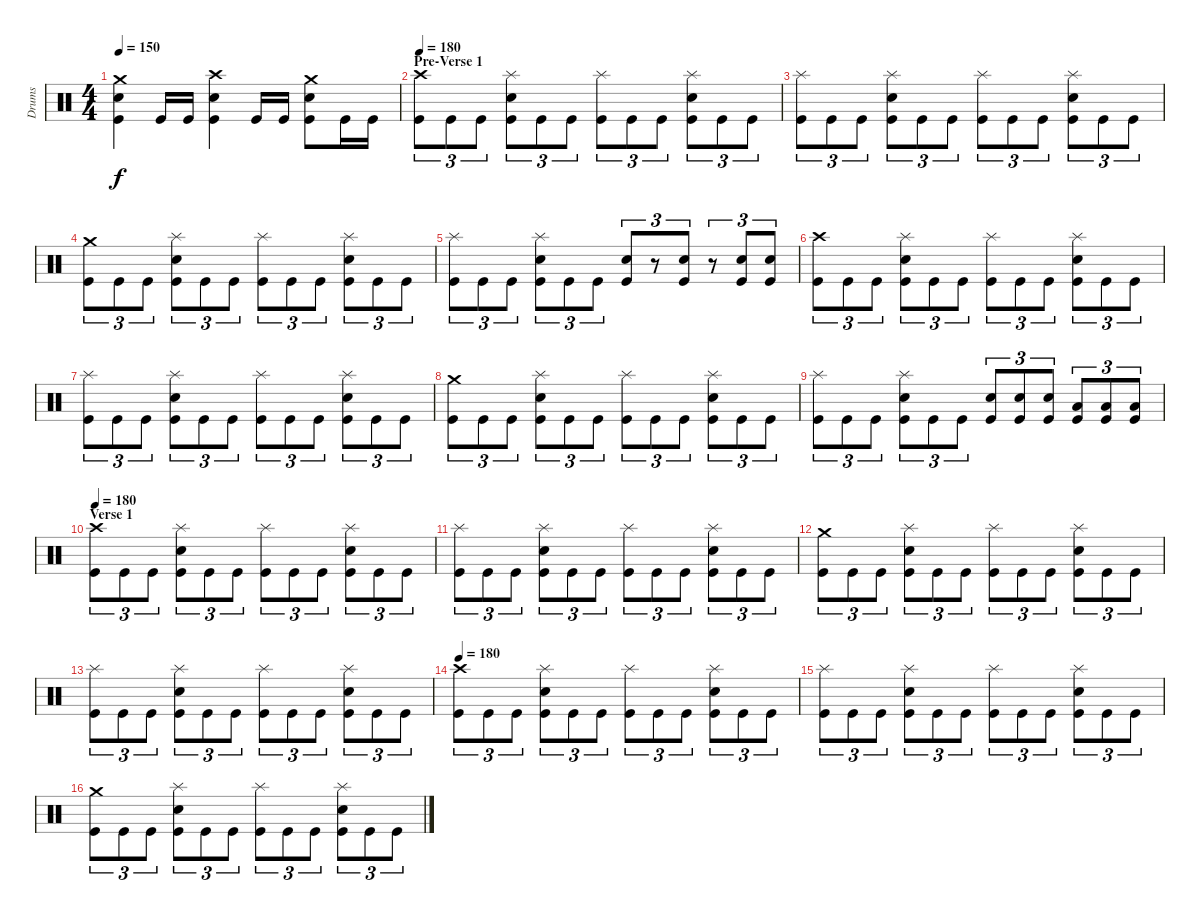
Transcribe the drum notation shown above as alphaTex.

\track ("Drums" "Drums") {instrument percussion}
\staff {score}
\articulation defaults
\ts (4 4)
\tempo 150
\clef neutral
\ks c
("Crash medium (hit)" "Electric Snare (hit)" "Kick (hit)").4{dy f} "Kick (hit)".16 "Kick (hit)".16 ("Crash high (hit)" "Electric Snare (hit)" "Kick (hit)").4 "Kick (hit)".16 "Kick (hit)".16 ("Crash medium (hit)" "Electric Snare (hit)" "Kick (hit)").8 "Kick (hit)".16 "Kick (hit)".16 |
\section ("" "Pre-Verse 1")
\tempo 180
("Crash high (hit)" "Kick (hit)").8{tu (3 2)} "Kick (hit)".8{tu (3 2)} "Kick (hit)".8{tu (3 2)} ("Splash (hit)" "Electric Snare (hit)" "Kick (hit)").8{tu (3 2)} "Kick (hit)".8{tu (3 2)} "Kick (hit)".8{tu (3 2)} ("Splash (hit)" "Kick (hit)").8{tu (3 2)} "Kick (hit)".8{tu (3 2)} "Kick (hit)".8{tu (3 2)} ("Splash (hit)" "Electric Snare (hit)" "Kick (hit)").8{tu (3 2)} "Kick (hit)".8{tu (3 2)} "Kick (hit)".8{tu (3 2)} |
("Splash (hit)" "Kick (hit)").8{tu (3 2)} "Kick (hit)".8{tu (3 2)} "Kick (hit)".8{tu (3 2)} ("Splash (hit)" "Electric Snare (hit)" "Kick (hit)").8{tu (3 2)} "Kick (hit)".8{tu (3 2)} "Kick (hit)".8{tu (3 2)} ("Splash (hit)" "Kick (hit)").8{tu (3 2)} "Kick (hit)".8{tu (3 2)} "Kick (hit)".8{tu (3 2)} ("Splash (hit)" "Electric Snare (hit)" "Kick (hit)").8{tu (3 2)} "Kick (hit)".8{tu (3 2)} "Kick (hit)".8{tu (3 2)} |
("Crash medium (hit)" "Kick (hit)").8{tu (3 2)} "Kick (hit)".8{tu (3 2)} "Kick (hit)".8{tu (3 2)} ("Splash (hit)" "Electric Snare (hit)" "Kick (hit)").8{tu (3 2)} "Kick (hit)".8{tu (3 2)} "Kick (hit)".8{tu (3 2)} ("Splash (hit)" "Kick (hit)").8{tu (3 2)} "Kick (hit)".8{tu (3 2)} "Kick (hit)".8{tu (3 2)} ("Splash (hit)" "Electric Snare (hit)" "Kick (hit)").8{tu (3 2)} "Kick (hit)".8{tu (3 2)} "Kick (hit)".8{tu (3 2)} |
("Splash (hit)" "Kick (hit)").8{tu (3 2)} "Kick (hit)".8{tu (3 2)} "Kick (hit)".8{tu (3 2)} ("Splash (hit)" "Electric Snare (hit)" "Kick (hit)").8{tu (3 2)} "Kick (hit)".8{tu (3 2)} "Kick (hit)".8{tu (3 2)} ("Electric Snare (hit)" "Kick (hit)").8{tu (3 2)} r.8{tu (3 2)} ("Electric Snare (hit)" "Kick (hit)").8{tu (3 2)} r.8{tu (3 2)} ("Electric Snare (hit)" "Kick (hit)").8{tu (3 2)} ("Electric Snare (hit)" "Kick (hit)").8{tu (3 2)} |
("Crash high (hit)" "Kick (hit)").8{tu (3 2)} "Kick (hit)".8{tu (3 2)} "Kick (hit)".8{tu (3 2)} ("Splash (hit)" "Electric Snare (hit)" "Kick (hit)").8{tu (3 2)} "Kick (hit)".8{tu (3 2)} "Kick (hit)".8{tu (3 2)} ("Splash (hit)" "Kick (hit)").8{tu (3 2)} "Kick (hit)".8{tu (3 2)} "Kick (hit)".8{tu (3 2)} ("Splash (hit)" "Electric Snare (hit)" "Kick (hit)").8{tu (3 2)} "Kick (hit)".8{tu (3 2)} "Kick (hit)".8{tu (3 2)} |
("Splash (hit)" "Kick (hit)").8{tu (3 2)} "Kick (hit)".8{tu (3 2)} "Kick (hit)".8{tu (3 2)} ("Splash (hit)" "Electric Snare (hit)" "Kick (hit)").8{tu (3 2)} "Kick (hit)".8{tu (3 2)} "Kick (hit)".8{tu (3 2)} ("Splash (hit)" "Kick (hit)").8{tu (3 2)} "Kick (hit)".8{tu (3 2)} "Kick (hit)".8{tu (3 2)} ("Splash (hit)" "Electric Snare (hit)" "Kick (hit)").8{tu (3 2)} "Kick (hit)".8{tu (3 2)} "Kick (hit)".8{tu (3 2)} |
("Crash medium (hit)" "Kick (hit)").8{tu (3 2)} "Kick (hit)".8{tu (3 2)} "Kick (hit)".8{tu (3 2)} ("Splash (hit)" "Electric Snare (hit)" "Kick (hit)").8{tu (3 2)} "Kick (hit)".8{tu (3 2)} "Kick (hit)".8{tu (3 2)} ("Splash (hit)" "Kick (hit)").8{tu (3 2)} "Kick (hit)".8{tu (3 2)} "Kick (hit)".8{tu (3 2)} ("Splash (hit)" "Electric Snare (hit)" "Kick (hit)").8{tu (3 2)} "Kick (hit)".8{tu (3 2)} "Kick (hit)".8{tu (3 2)} |
("Splash (hit)" "Kick (hit)").8{tu (3 2)} "Kick (hit)".8{tu (3 2)} "Kick (hit)".8{tu (3 2)} ("Splash (hit)" "Electric Snare (hit)" "Kick (hit)").8{tu (3 2)} "Kick (hit)".8{tu (3 2)} "Kick (hit)".8{tu (3 2)} ("Electric Snare (hit)" "Kick (hit)").8{tu (3 2)} ("Electric Snare (hit)" "Kick (hit)").8{tu (3 2)} ("Electric Snare (hit)" "Kick (hit)").8{tu (3 2)} ("Low Floor Tom (hit)" "Kick (hit)").8{tu (3 2)} ("Low Floor Tom (hit)" "Kick (hit)").8{tu (3 2)} ("Low Floor Tom (hit)" "Kick (hit)").8{tu (3 2)} |
\section ("" "Verse 1")
\tempo 180
("Crash high (hit)" "Kick (hit)").8{tu (3 2)} "Kick (hit)".8{tu (3 2)} "Kick (hit)".8{tu (3 2)} ("Splash (hit)" "Electric Snare (hit)" "Kick (hit)").8{tu (3 2)} "Kick (hit)".8{tu (3 2)} "Kick (hit)".8{tu (3 2)} ("Splash (hit)" "Kick (hit)").8{tu (3 2)} "Kick (hit)".8{tu (3 2)} "Kick (hit)".8{tu (3 2)} ("Splash (hit)" "Electric Snare (hit)" "Kick (hit)").8{tu (3 2)} "Kick (hit)".8{tu (3 2)} "Kick (hit)".8{tu (3 2)} |
("Splash (hit)" "Kick (hit)").8{tu (3 2)} "Kick (hit)".8{tu (3 2)} "Kick (hit)".8{tu (3 2)} ("Splash (hit)" "Electric Snare (hit)" "Kick (hit)").8{tu (3 2)} "Kick (hit)".8{tu (3 2)} "Kick (hit)".8{tu (3 2)} ("Splash (hit)" "Kick (hit)").8{tu (3 2)} "Kick (hit)".8{tu (3 2)} "Kick (hit)".8{tu (3 2)} ("Splash (hit)" "Electric Snare (hit)" "Kick (hit)").8{tu (3 2)} "Kick (hit)".8{tu (3 2)} "Kick (hit)".8{tu (3 2)} |
("Crash medium (hit)" "Kick (hit)").8{tu (3 2)} "Kick (hit)".8{tu (3 2)} "Kick (hit)".8{tu (3 2)} ("Splash (hit)" "Electric Snare (hit)" "Kick (hit)").8{tu (3 2)} "Kick (hit)".8{tu (3 2)} "Kick (hit)".8{tu (3 2)} ("Splash (hit)" "Kick (hit)").8{tu (3 2)} "Kick (hit)".8{tu (3 2)} "Kick (hit)".8{tu (3 2)} ("Splash (hit)" "Electric Snare (hit)" "Kick (hit)").8{tu (3 2)} "Kick (hit)".8{tu (3 2)} "Kick (hit)".8{tu (3 2)} |
("Splash (hit)" "Kick (hit)").8{tu (3 2)} "Kick (hit)".8{tu (3 2)} "Kick (hit)".8{tu (3 2)} ("Splash (hit)" "Electric Snare (hit)" "Kick (hit)").8{tu (3 2)} "Kick (hit)".8{tu (3 2)} "Kick (hit)".8{tu (3 2)} ("Splash (hit)" "Kick (hit)").8{tu (3 2)} "Kick (hit)".8{tu (3 2)} "Kick (hit)".8{tu (3 2)} ("Splash (hit)" "Electric Snare (hit)" "Kick (hit)").8{tu (3 2)} "Kick (hit)".8{tu (3 2)} "Kick (hit)".8{tu (3 2)} |
\tempo 180
("Crash high (hit)" "Kick (hit)").8{tu (3 2)} "Kick (hit)".8{tu (3 2)} "Kick (hit)".8{tu (3 2)} ("Splash (hit)" "Electric Snare (hit)" "Kick (hit)").8{tu (3 2)} "Kick (hit)".8{tu (3 2)} "Kick (hit)".8{tu (3 2)} ("Splash (hit)" "Kick (hit)").8{tu (3 2)} "Kick (hit)".8{tu (3 2)} "Kick (hit)".8{tu (3 2)} ("Splash (hit)" "Electric Snare (hit)" "Kick (hit)").8{tu (3 2)} "Kick (hit)".8{tu (3 2)} "Kick (hit)".8{tu (3 2)} |
("Splash (hit)" "Kick (hit)").8{tu (3 2)} "Kick (hit)".8{tu (3 2)} "Kick (hit)".8{tu (3 2)} ("Splash (hit)" "Electric Snare (hit)" "Kick (hit)").8{tu (3 2)} "Kick (hit)".8{tu (3 2)} "Kick (hit)".8{tu (3 2)} ("Splash (hit)" "Kick (hit)").8{tu (3 2)} "Kick (hit)".8{tu (3 2)} "Kick (hit)".8{tu (3 2)} ("Splash (hit)" "Electric Snare (hit)" "Kick (hit)").8{tu (3 2)} "Kick (hit)".8{tu (3 2)} "Kick (hit)".8{tu (3 2)} |
("Crash medium (hit)" "Kick (hit)").8{tu (3 2)} "Kick (hit)".8{tu (3 2)} "Kick (hit)".8{tu (3 2)} ("Splash (hit)" "Electric Snare (hit)" "Kick (hit)").8{tu (3 2)} "Kick (hit)".8{tu (3 2)} "Kick (hit)".8{tu (3 2)} ("Splash (hit)" "Kick (hit)").8{tu (3 2)} "Kick (hit)".8{tu (3 2)} "Kick (hit)".8{tu (3 2)} ("Splash (hit)" "Electric Snare (hit)" "Kick (hit)").8{tu (3 2)} "Kick (hit)".8{tu (3 2)} "Kick (hit)".8{tu (3 2)}
